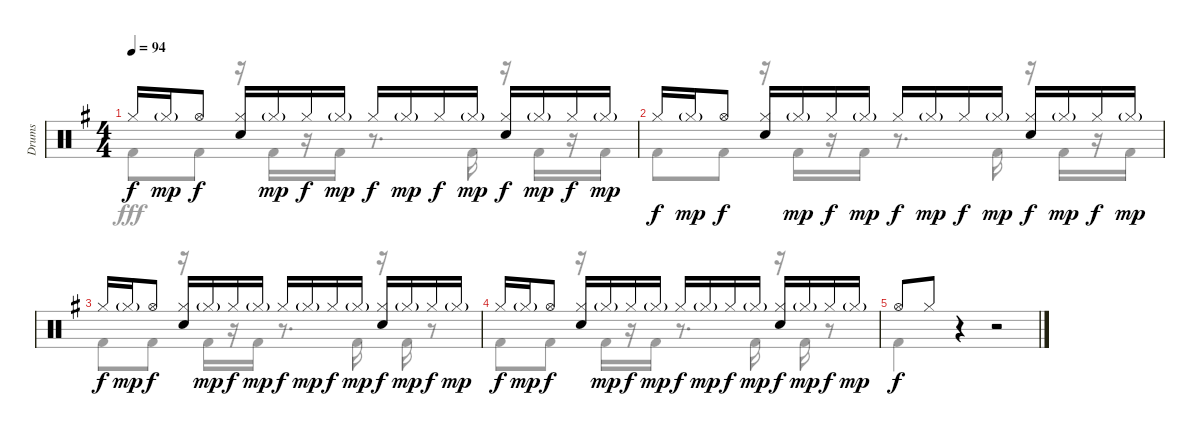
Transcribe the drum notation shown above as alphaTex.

\track ("Drums" "Drums") {instrument percussion}
\staff {score}
\articulation defaults
\voice
\ts (4 4)
\tempo 94
\clef neutral
\ks g "Hi-Hat (closed)".16{dy f} "Hi-Hat (closed)"{g}.16{dy mp} "Hi-Hat (open)".8{dy f}
("Hi-Hat (closed)" "Snare (hit) 2").16 "Hi-Hat (closed)"{g}.16{dy mp} "Hi-Hat (closed)".16{dy f} "Hi-Hat (closed)"{g}.16{dy mp} "Hi-Hat (closed)".16{dy f} "Hi-Hat (closed)"{g}.16{dy mp} "Hi-Hat (closed)".16{dy f} "Hi-Hat (closed)"{g}.16{dy mp} ("Hi-Hat (closed)" "Snare (hit) 2").16{dy f} "Hi-Hat (closed)"{g}.16{dy mp} "Hi-Hat (closed)".16{dy f} "Hi-Hat (closed)"{g}.16{dy mp} |
"Hi-Hat (closed)".16{dy f} "Hi-Hat (closed)"{g}.16{dy mp} "Hi-Hat (open)".8{dy f} ("Hi-Hat (closed)" "Snare (hit) 2").16 "Hi-Hat (closed)"{g}.16{dy mp} "Hi-Hat (closed)".16{dy f} "Hi-Hat (closed)"{g}.16{dy mp} "Hi-Hat (closed)".16{dy f} "Hi-Hat (closed)"{g}.16{dy mp} "Hi-Hat (closed)".16{dy f} "Hi-Hat (closed)"{g}.16{dy mp} ("Hi-Hat (closed)" "Snare (hit) 2").16{dy f} "Hi-Hat (closed)"{g}.16{dy mp} "Hi-Hat (closed)".16{dy f} "Hi-Hat (closed)"{g}.16{dy mp} |
"Hi-Hat (closed)".16{dy f} "Hi-Hat (closed)"{g}.16{dy mp} "Hi-Hat (open)".8{dy f} ("Hi-Hat (closed)" "Snare (hit) 2").16 "Hi-Hat (closed)"{g}.16{dy mp} "Hi-Hat (closed)".16{dy f} "Hi-Hat (closed)"{g}.16{dy mp} "Hi-Hat (closed)".16{dy f} "Hi-Hat (closed)"{g}.16{dy mp} "Hi-Hat (closed)".16{dy f} "Hi-Hat (closed)"{g}.16{dy mp} ("Hi-Hat (closed)" "Snare (hit) 2").16{dy f} "Hi-Hat (closed)"{g}.16{dy mp} "Hi-Hat (closed)".16{dy f} "Hi-Hat (closed)"{g}.16{dy mp} |
"Hi-Hat (closed)".16{dy f} "Hi-Hat (closed)"{g}.16{dy mp} "Hi-Hat (open)".8{dy f} ("Hi-Hat (closed)" "Snare (hit) 2").16 "Hi-Hat (closed)"{g}.16{dy mp} "Hi-Hat (closed)".16{dy f} "Hi-Hat (closed)"{g}.16{dy mp} "Hi-Hat (closed)".16{dy f} "Hi-Hat (closed)"{g}.16{dy mp} "Hi-Hat (closed)".16{dy f} "Hi-Hat (closed)"{g}.16{dy mp} ("Hi-Hat (closed)" "Snare (hit) 2").16{dy f} "Hi-Hat (closed)"{g}.16{dy mp} "Hi-Hat (closed)".16{dy f} "Hi-Hat (closed)"{g}.16{dy mp} |
"Hi-Hat (open)".8{dy f} "Hi-Hat (closed)".8 r.4 r.2
\voice
\clef neutral
\ottava regular
\simile none
\ks g "Kick (hit) 2".8{dy fff} "Kick (hit) 2".8
r.16 "Kick (hit) 2".16 r.16 "Kick (hit) 2".16 r.8{d} "Kick (hit) 2".16 r.16 "Kick (hit) 2".16 r.16 "Kick (hit) 2".16 |
"Kick (hit) 2".8 "Kick (hit) 2".8 r.16 "Kick (hit) 2".16 r.16 "Kick (hit) 2".16 r.8{d} "Kick (hit) 2".16 r.16 "Kick (hit) 2".16 r.16 "Kick (hit) 2".16 |
"Kick (hit) 2".8 "Kick (hit) 2".8 r.16 "Kick (hit) 2".16 r.16 "Kick (hit) 2".16 r.8{d} "Kick (hit) 2".16 r.16 "Kick (hit) 2".16 r.8 |
"Kick (hit) 2".8 "Kick (hit) 2".8 r.16 "Kick (hit) 2".16 r.16 "Kick (hit) 2".16 r.8{d} "Kick (hit) 2".16 r.16 "Kick (hit) 2".16 r.8 |
"Kick (hit) 2".4 r.4 r.2
